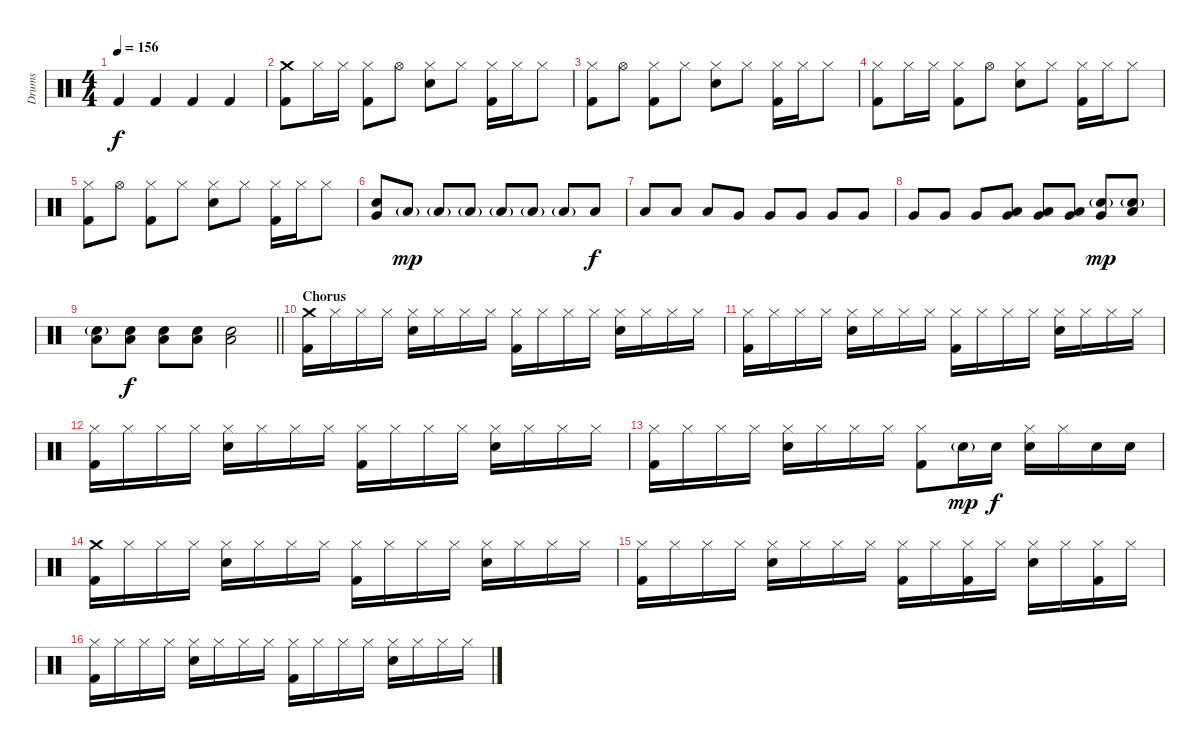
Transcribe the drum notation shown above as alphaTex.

\track ("Drums" "Drums") {instrument percussion}
\staff {score}
\articulation defaults
\ts (4 4)
\tempo 156
\clef neutral
\ks c "Kick (hit) 2".4{dy f} "Kick (hit) 2".4 "Kick (hit) 2".4 "Kick (hit) 2".4
|
("Crash medium (hit)" "Kick (hit) 2").8 "Hi-Hat (closed)".16 "Hi-Hat (closed)".16 ("Hi-Hat (closed)" "Kick (hit) 2").8 "Hi-Hat (open)".8 ("Hi-Hat (closed)" "Electric Snare (hit)").8 "Hi-Hat (closed)".8 ("Hi-Hat (closed)" "Kick (hit) 2").16 "Hi-Hat (closed)".16 "Hi-Hat (closed)".8 |
("Hi-Hat (closed)" "Kick (hit) 2").8 "Hi-Hat (open)".8 ("Hi-Hat (closed)" "Kick (hit) 2").8 "Hi-Hat (closed)".8 ("Hi-Hat (closed)" "Electric Snare (hit)").8 "Hi-Hat (closed)".8 ("Hi-Hat (closed)" "Kick (hit) 2").16 "Hi-Hat (closed)".16 "Hi-Hat (closed)".8 |
("Hi-Hat (closed)" "Kick (hit) 2").8 "Hi-Hat (closed)".16 "Hi-Hat (closed)".16 ("Hi-Hat (closed)" "Kick (hit) 2").8 "Hi-Hat (open)".8 ("Hi-Hat (closed)" "Electric Snare (hit)").8 "Hi-Hat (closed)".8 ("Hi-Hat (closed)" "Kick (hit) 2").16 "Hi-Hat (closed)".16 "Hi-Hat (closed)".8 |
("Hi-Hat (closed)" "Kick (hit) 2").8 "Hi-Hat (open)".8 ("Hi-Hat (closed)" "Kick (hit) 2").8 "Hi-Hat (closed)".8 ("Hi-Hat (closed)" "Electric Snare (hit)").8 "Hi-Hat (closed)".8 ("Hi-Hat (closed)" "Kick (hit) 2").16 "Hi-Hat (closed)".16 "Hi-Hat (closed)".8 |
("Very Low Tom (hit)" "Electric Snare (hit)").8 "Low Floor Tom (hit)"{g}.8{dy mp} "Low Floor Tom (hit)"{g}.8 "Low Floor Tom (hit)"{g}.8 "Low Floor Tom (hit)"{g}.8 "Low Floor Tom (hit)"{g}.8 "Low Floor Tom (hit)"{g}.8 "Low Floor Tom (hit)".8{dy f} |
"Low Floor Tom (hit)".8 "Low Floor Tom (hit)".8 "Low Floor Tom (hit)".8 "Very Low Tom (hit)".8 "Very Low Tom (hit)".8 "Very Low Tom (hit)".8 "Very Low Tom (hit)".8 "Very Low Tom (hit)".8 |
"Very Low Tom (hit)".8 "Very Low Tom (hit)".8 "Very Low Tom (hit)".8 ("Low Tom (hit)" "Very Low Tom (hit)").8 ("Low Tom (hit)" "Very Low Tom (hit)").8 ("Low Tom (hit)" "Very Low Tom (hit)").8 ("Electric Snare (hit)"{g} "Very Low Tom (hit)").8{dy mp} ("Electric Snare (hit)"{g} "Low Tom (hit)").8 |
\barLineRight lightlight
("Electric Snare (hit)"{g} "Low Tom (hit)").8 ("Electric Snare (hit)" "Low Tom (hit)").8{dy f} ("Electric Snare (hit)" "Low Tom (hit)").8 ("Electric Snare (hit)" "Low Tom (hit)").8 ("Electric Snare (hit)" "Low Tom (hit)").2 |
\section ("" "Chorus")
("Crash medium (hit)" "Kick (hit) 2").16 "Hi-Hat (closed)".16 "Hi-Hat (closed)".16 "Hi-Hat (closed)".16 ("Hi-Hat (closed)" "Electric Snare (hit)").16 "Hi-Hat (closed)".16 "Hi-Hat (closed)".16 "Hi-Hat (closed)".16 ("Hi-Hat (closed)" "Kick (hit) 2").16 "Hi-Hat (closed)".16 "Hi-Hat (closed)".16 "Hi-Hat (closed)".16 ("Hi-Hat (closed)" "Electric Snare (hit)").16 "Hi-Hat (closed)".16 "Hi-Hat (closed)".16 "Hi-Hat (closed)".16 |
("Hi-Hat (closed)" "Kick (hit) 2").16 "Hi-Hat (closed)".16 "Hi-Hat (closed)".16 "Hi-Hat (closed)".16 ("Hi-Hat (closed)" "Electric Snare (hit)").16 "Hi-Hat (closed)".16 "Hi-Hat (closed)".16 "Hi-Hat (closed)".16 ("Hi-Hat (closed)" "Kick (hit) 2").16 "Hi-Hat (closed)".16 "Hi-Hat (closed)".16 "Hi-Hat (closed)".16 ("Hi-Hat (closed)" "Electric Snare (hit)").16 "Hi-Hat (closed)".16 "Hi-Hat (closed)".16 "Hi-Hat (closed)".16 |
("Hi-Hat (closed)" "Kick (hit) 2").16 "Hi-Hat (closed)".16 "Hi-Hat (closed)".16 "Hi-Hat (closed)".16 ("Hi-Hat (closed)" "Electric Snare (hit)").16 "Hi-Hat (closed)".16 "Hi-Hat (closed)".16 "Hi-Hat (closed)".16 ("Hi-Hat (closed)" "Kick (hit) 2").16 "Hi-Hat (closed)".16 "Hi-Hat (closed)".16 "Hi-Hat (closed)".16 ("Hi-Hat (closed)" "Electric Snare (hit)").16 "Hi-Hat (closed)".16 "Hi-Hat (closed)".16 "Hi-Hat (closed)".16 |
("Hi-Hat (closed)" "Kick (hit) 2").16 "Hi-Hat (closed)".16 "Hi-Hat (closed)".16 "Hi-Hat (closed)".16 ("Hi-Hat (closed)" "Electric Snare (hit)").16 "Hi-Hat (closed)".16 "Hi-Hat (closed)".16 "Hi-Hat (closed)".16 ("Hi-Hat (closed)" "Kick (hit) 2").8 "Electric Snare (hit)"{g}.16{dy mp} "Electric Snare (hit)".16{dy f} ("Hi-Hat (closed)" "Electric Snare (hit)").16 "Hi-Hat (closed)".16 "Electric Snare (hit)".16 "Electric Snare (hit)".16 |
("Crash medium (hit)" "Kick (hit) 2").16 "Hi-Hat (closed)".16 "Hi-Hat (closed)".16 "Hi-Hat (closed)".16 ("Hi-Hat (closed)" "Electric Snare (hit)").16 "Hi-Hat (closed)".16 "Hi-Hat (closed)".16 "Hi-Hat (closed)".16 ("Hi-Hat (closed)" "Kick (hit) 2").16 "Hi-Hat (closed)".16 "Hi-Hat (closed)".16 "Hi-Hat (closed)".16 ("Hi-Hat (closed)" "Electric Snare (hit)").16 "Hi-Hat (closed)".16 "Hi-Hat (closed)".16 "Hi-Hat (closed)".16 |
("Hi-Hat (closed)" "Kick (hit) 2").16 "Hi-Hat (closed)".16 "Hi-Hat (closed)".16 "Hi-Hat (closed)".16 ("Hi-Hat (closed)" "Electric Snare (hit)").16 "Hi-Hat (closed)".16 "Hi-Hat (closed)".16 "Hi-Hat (closed)".16 ("Hi-Hat (closed)" "Kick (hit) 2").16 "Hi-Hat (closed)".16 ("Hi-Hat (closed)" "Kick (hit) 2").16 "Hi-Hat (closed)".16 ("Hi-Hat (closed)" "Electric Snare (hit)").16 "Hi-Hat (closed)".16 ("Hi-Hat (closed)" "Kick (hit) 2").16 "Hi-Hat (closed)".16 |
("Hi-Hat (closed)" "Kick (hit) 2").16 "Hi-Hat (closed)".16 "Hi-Hat (closed)".16 "Hi-Hat (closed)".16 ("Hi-Hat (closed)" "Electric Snare (hit)").16 "Hi-Hat (closed)".16 "Hi-Hat (closed)".16 "Hi-Hat (closed)".16 ("Hi-Hat (closed)" "Kick (hit) 2").16 "Hi-Hat (closed)".16 "Hi-Hat (closed)".16 "Hi-Hat (closed)".16 ("Hi-Hat (closed)" "Electric Snare (hit)").16 "Hi-Hat (closed)".16 "Hi-Hat (closed)".16 "Hi-Hat (closed)".16
